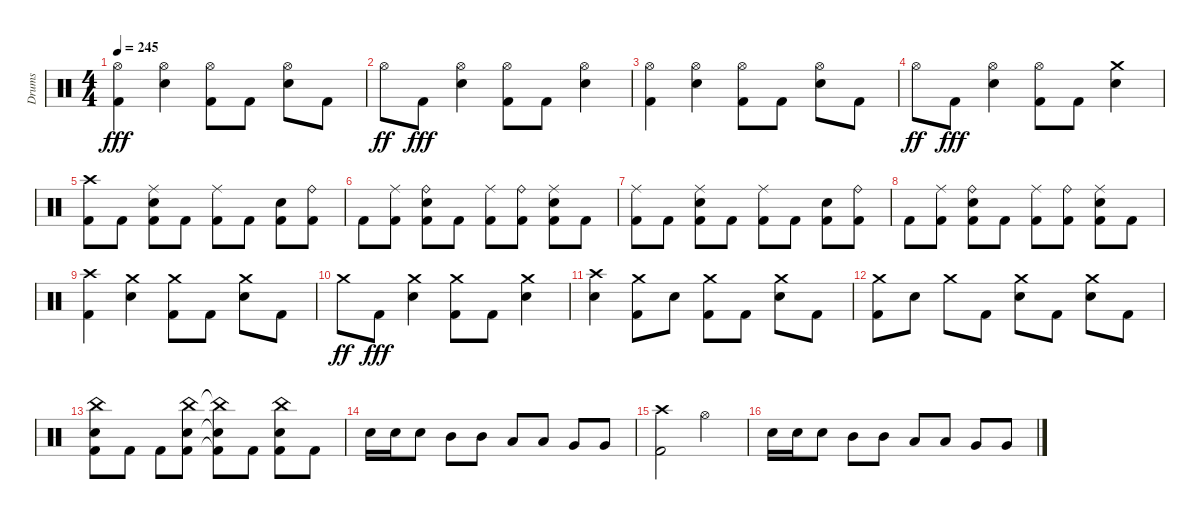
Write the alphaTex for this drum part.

\track ("Drums" "Drums") {instrument percussion}
\staff {score}
\articulation defaults
\ts (4 4)
\tempo 245
\clef neutral
\ks aminor
("Kick (hit) 2" "Hi-Hat (open)").4{dy fff} ("Snare (hit) 2" "Hi-Hat (open)").4 ("Kick (hit) 2" "Hi-Hat (open)").8 "Kick (hit) 2".8 ("Snare (hit) 2" "Hi-Hat (open)").8 "Kick (hit) 2".8 |
"Hi-Hat (open)".8{dy ff} "Kick (hit) 2".8{dy fff} ("Snare (hit) 2" "Hi-Hat (open)").4 ("Kick (hit) 2" "Hi-Hat (open)").8 "Kick (hit) 2".8 ("Snare (hit) 2" "Hi-Hat (open)").4 |
("Kick (hit) 2" "Hi-Hat (open)").4 ("Snare (hit) 2" "Hi-Hat (open)").4 ("Kick (hit) 2" "Hi-Hat (open)").8 "Kick (hit) 2".8 ("Snare (hit) 2" "Hi-Hat (open)").8 "Kick (hit) 2".8 |
"Hi-Hat (open)".8{dy ff} "Kick (hit) 2".8{dy fff} ("Snare (hit) 2" "Hi-Hat (open)").4 ("Kick (hit) 2" "Hi-Hat (open)").8 "Kick (hit) 2".8 ("Snare (hit) 2" "Crash medium (hit)").4 |
("Kick (hit) 2" "Crash high (hit)").8 "Kick (hit) 2".8 ("Kick (hit) 2" "Snare (hit) 2" "Ride (middle)").8 "Kick (hit) 2".8 ("Kick (hit) 2" "Ride (middle)").8 "Kick (hit) 2".8 ("Kick (hit) 2" "Snare (hit) 2").8 ("Kick (hit) 2" "Ride (bell)").8 |
"Kick (hit) 2".8 ("Kick (hit) 2" "Ride (middle)").8 ("Kick (hit) 2" "Snare (hit) 2" "Ride (bell)").8 "Kick (hit) 2".8 ("Kick (hit) 2" "Ride (middle)").8 ("Kick (hit) 2" "Ride (bell)").8 ("Kick (hit) 2" "Snare (hit) 2" "Ride (middle)").8 "Kick (hit) 2".8 |
("Kick (hit) 2" "Ride (middle)").8 "Kick (hit) 2".8 ("Kick (hit) 2" "Snare (hit) 2" "Ride (middle)").8 "Kick (hit) 2".8 ("Kick (hit) 2" "Ride (middle)").8 "Kick (hit) 2".8 ("Kick (hit) 2" "Snare (hit) 2").8 ("Kick (hit) 2" "Ride (bell)").8 |
"Kick (hit) 2".8 ("Kick (hit) 2" "Ride (middle)").8 ("Kick (hit) 2" "Snare (hit) 2" "Ride (bell)").8 "Kick (hit) 2".8 ("Kick (hit) 2" "Ride (middle)").8 ("Kick (hit) 2" "Ride (bell)").8 ("Kick (hit) 2" "Snare (hit) 2" "Ride (middle)").8 "Kick (hit) 2".8 |
("Kick (hit) 2" "Crash high (hit)").4 ("Snare (hit) 2" "Crash medium (hit)").4 ("Kick (hit) 2" "Crash medium (hit)").8 "Kick (hit) 2".8 ("Snare (hit) 2" "Crash medium (hit)").8 "Kick (hit) 2".8 |
"Crash medium (hit)".8{dy ff} "Kick (hit) 2".8{dy fff} ("Snare (hit) 2" "Crash medium (hit)").4 ("Kick (hit) 2" "Crash medium (hit)").8 "Kick (hit) 2".8 ("Snare (hit) 2" "Crash medium (hit)").4 |
("Snare (hit) 2" "Crash high (hit)").4 ("Kick (hit) 2" "Crash medium (hit)").8 "Snare (hit) 2".8 ("Kick (hit) 2" "Crash medium (hit)").8 "Kick (hit) 2".8 ("Snare (hit) 2" "Crash medium (hit)").8 "Kick (hit) 2".8 |
("Kick (hit) 2" "Crash medium (hit)").8 "Snare (hit) 2".8 "Crash medium (hit)".8 "Kick (hit) 2".8 ("Snare (hit) 2" "Crash medium (hit)").8 "Kick (hit) 2".8 ("Snare (hit) 2" "Crash medium (hit)").8 "Kick (hit) 2".8 |
("Kick (hit) 2" "Snare (hit) 2" "China (hit)").8 "Kick (hit) 2".8 "Kick (hit) 2".8 ("Kick (hit) 2" "Snare (hit) 2" "China (hit)").8 ("Kick (hit) 2"{t} "Snare (hit) 2"{t} "China (hit)"{t}).8 "Kick (hit) 2".8 ("Kick (hit) 2" "Snare (hit) 2" "China (hit)").8 "Kick (hit) 2".8 |
"Snare (hit) 2".16 "Snare (hit) 2".16 "Snare (hit) 2".8 "Mid Tom (hit)".8 "Mid Tom (hit)".8 "Low Tom (hit)".8 "Low Tom (hit)".8 "Very Low Tom (hit)".8 "Very Low Tom (hit)".8 |
("Kick (hit) 2" "Crash high (hit)").2 "Hi-Hat (open)".2 |
"Snare (hit) 2".16 "Snare (hit) 2".16 "Snare (hit) 2".8 "Mid Tom (hit)".8 "Mid Tom (hit)".8 "Low Tom (hit)".8 "Low Tom (hit)".8 "Very Low Tom (hit)".8 "Very Low Tom (hit)".8
